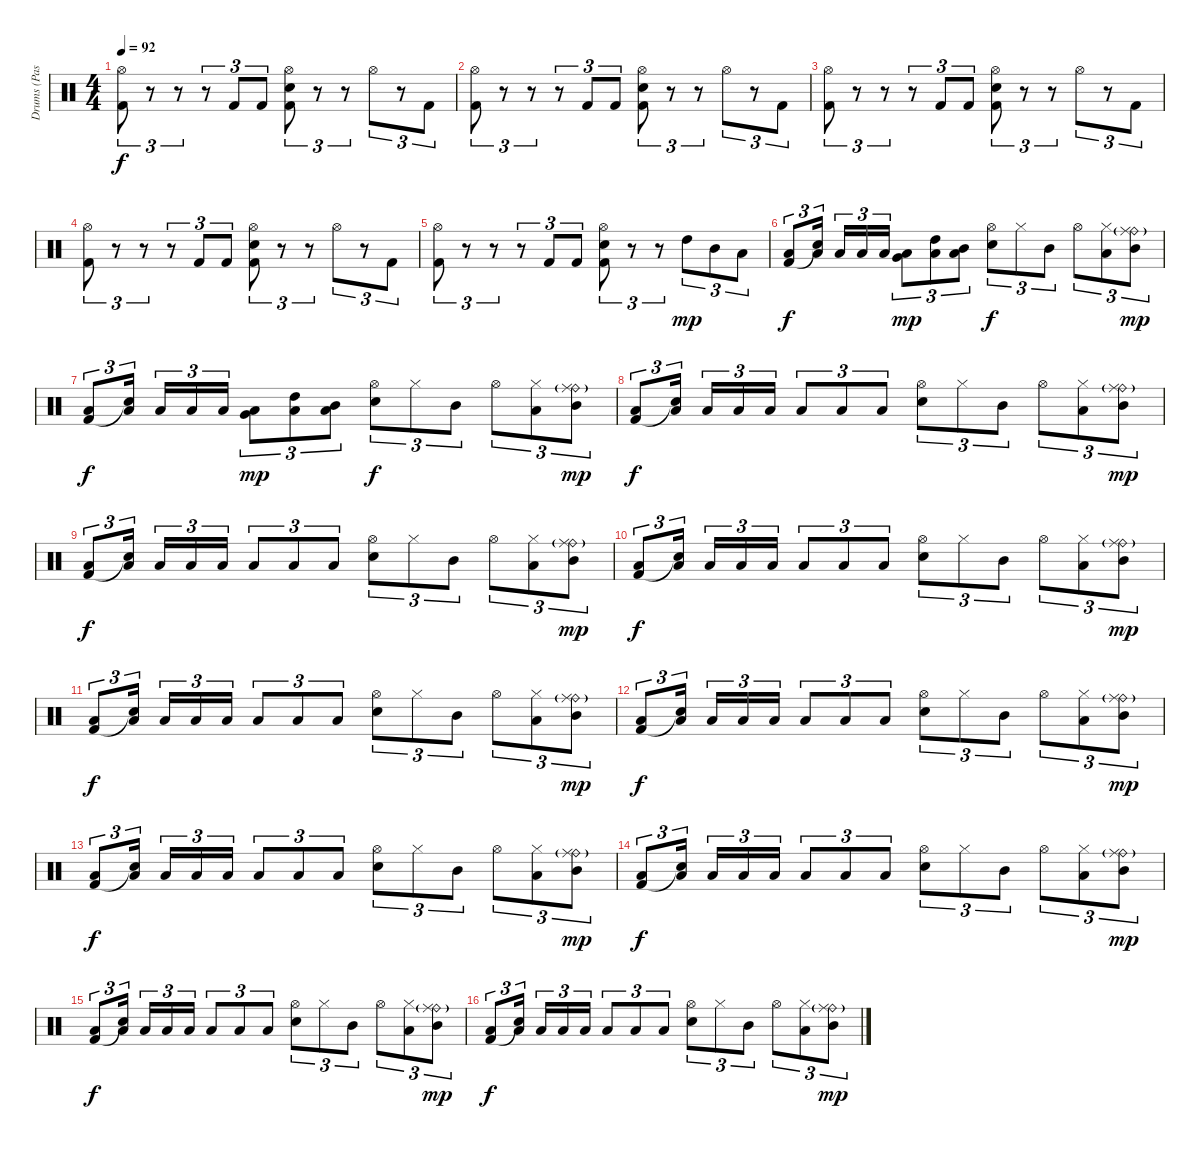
\track ("Drums (Pasanen)" "Drums (Pas") {instrument percussion}
\staff {score}
\articulation defaults
\ts (4 4)
\tempo 92
\clef neutral
\ks c
("Hi-Hat (open)" "Kick (hit) 2").8{tu (3 2) dy f} r.8{tu (3 2)} r.8{tu (3 2)} r.8{tu (3 2)} "Kick (hit) 2".8{tu (3 2)} "Kick (hit) 2".8{tu (3 2)} ("Hi-Hat (open)" "Electric Snare (hit)" "Kick (hit) 2").8{tu (3 2)} r.8{tu (3 2)} r.8{tu (3 2)} "Hi-Hat (open)".8{tu (3 2)} r.8{tu (3 2)} "Kick (hit) 2".8{tu (3 2)} |
("Hi-Hat (open)" "Kick (hit) 2").8{tu (3 2)} r.8{tu (3 2)} r.8{tu (3 2)} r.8{tu (3 2)} "Kick (hit) 2".8{tu (3 2)} "Kick (hit) 2".8{tu (3 2)} ("Hi-Hat (open)" "Electric Snare (hit)" "Kick (hit) 2").8{tu (3 2)} r.8{tu (3 2)} r.8{tu (3 2)} "Hi-Hat (open)".8{tu (3 2)} r.8{tu (3 2)} "Kick (hit) 2".8{tu (3 2)} |
("Hi-Hat (open)" "Kick (hit) 2").8{tu (3 2)} r.8{tu (3 2)} r.8{tu (3 2)} r.8{tu (3 2)} "Kick (hit) 2".8{tu (3 2)} "Kick (hit) 2".8{tu (3 2)} ("Hi-Hat (open)" "Electric Snare (hit)" "Kick (hit) 2").8{tu (3 2)} r.8{tu (3 2)} r.8{tu (3 2)} "Hi-Hat (open)".8{tu (3 2)} r.8{tu (3 2)} "Kick (hit) 2".8{tu (3 2)} |
("Hi-Hat (open)" "Kick (hit) 2").8{tu (3 2)} r.8{tu (3 2)} r.8{tu (3 2)} r.8{tu (3 2)} "Kick (hit) 2".8{tu (3 2)} "Kick (hit) 2".8{tu (3 2)} ("Hi-Hat (open)" "Electric Snare (hit)" "Kick (hit) 2").8{tu (3 2)} r.8{tu (3 2)} r.8{tu (3 2)} "Hi-Hat (open)".8{tu (3 2)} r.8{tu (3 2)} "Kick (hit) 2".8{tu (3 2)} |
("Hi-Hat (open)" "Kick (hit) 2").8{tu (3 2)} r.8{tu (3 2)} r.8{tu (3 2)} r.8{tu (3 2)} "Kick (hit) 2".8{tu (3 2)} "Kick (hit) 2".8{tu (3 2)} ("Hi-Hat (open)" "Electric Snare (hit)" "Kick (hit) 2").8{tu (3 2)} r.8{tu (3 2)} r.8{tu (3 2)} "High Tom (hit)".8{tu (3 2) dy mp} "Mid Tom (hit)".8{tu (3 2)} "Low Tom (hit)".8{tu (3 2)} |
("Low Tom (hit)" "Kick (hit) 2").8{tu (3 2) dy f} ("Low Tom (hit)" "Snare (hit)"{t}).16{tu (3 2) beam splitsecondary} "Low Tom (hit)".16{tu (3 2)} "Low Tom (hit)".16{tu (3 2)} "Low Tom (hit)".16{tu (3 2)} ("Low Tom (hit)" "Very Low Tom (hit)").8{tu (3 2) dy mp} ("Low Tom (hit)" "High Tom (hit)").8{tu (3 2)} ("Low Tom (hit)" "Mid Tom (hit)").8{tu (3 2)} ("Hi-Hat (open)" "Electric Snare (hit)").8{tu (3 2) dy f} "Hi-Hat (closed)".8{tu (3 2)} "Mid Tom (hit)".8{tu (3 2)} "Hi-Hat (open)".8{tu (3 2)} ("Hi-Hat (closed)" "Low Tom (hit)").8{tu (3 2)} ("Ride (bell)"{g} "Ride (middle)" "Mid Tom (hit)").8{tu (3 2) dy mp} |
("Low Tom (hit)" "Kick (hit) 2").8{tu (3 2) dy f} ("Low Tom (hit)" "Snare (hit)"{t}).16{tu (3 2) beam splitsecondary} "Low Tom (hit)".16{tu (3 2)} "Low Tom (hit)".16{tu (3 2)} "Low Tom (hit)".16{tu (3 2)} ("Low Tom (hit)" "Very Low Tom (hit)").8{tu (3 2) dy mp} ("Low Tom (hit)" "High Tom (hit)").8{tu (3 2)} ("Low Tom (hit)" "Mid Tom (hit)").8{tu (3 2)} ("Hi-Hat (open)" "Electric Snare (hit)").8{tu (3 2) dy f} "Hi-Hat (closed)".8{tu (3 2)} "Mid Tom (hit)".8{tu (3 2)} "Hi-Hat (open)".8{tu (3 2)} ("Hi-Hat (closed)" "Low Tom (hit)").8{tu (3 2)} ("Ride (bell)"{g} "Ride (middle)" "Mid Tom (hit)").8{tu (3 2) dy mp} |
("Low Tom (hit)" "Kick (hit) 2").8{tu (3 2) dy f} ("Low Tom (hit)" "Snare (hit)"{t}).16{tu (3 2) beam splitsecondary} "Low Tom (hit)".16{tu (3 2)} "Low Tom (hit)".16{tu (3 2)} "Low Tom (hit)".16{tu (3 2)} "Low Tom (hit)".8{tu (3 2)} "Low Tom (hit)".8{tu (3 2)} "Low Tom (hit)".8{tu (3 2)} ("Hi-Hat (open)" "Electric Snare (hit)").8{tu (3 2)} "Hi-Hat (closed)".8{tu (3 2)} "Mid Tom (hit)".8{tu (3 2)} "Hi-Hat (open)".8{tu (3 2)} ("Hi-Hat (closed)" "Low Tom (hit)").8{tu (3 2)} ("Ride (bell)"{g} "Ride (middle)" "Mid Tom (hit)").8{tu (3 2) dy mp} |
("Low Tom (hit)" "Kick (hit) 2").8{tu (3 2) dy f} ("Low Tom (hit)" "Snare (hit)"{t}).16{tu (3 2) beam splitsecondary} "Low Tom (hit)".16{tu (3 2)} "Low Tom (hit)".16{tu (3 2)} "Low Tom (hit)".16{tu (3 2)} "Low Tom (hit)".8{tu (3 2)} "Low Tom (hit)".8{tu (3 2)} "Low Tom (hit)".8{tu (3 2)} ("Hi-Hat (open)" "Electric Snare (hit)").8{tu (3 2)} "Hi-Hat (closed)".8{tu (3 2)} "Mid Tom (hit)".8{tu (3 2)} "Hi-Hat (open)".8{tu (3 2)} ("Hi-Hat (closed)" "Low Tom (hit)").8{tu (3 2)} ("Ride (bell)"{g} "Ride (middle)" "Mid Tom (hit)").8{tu (3 2) dy mp} |
("Low Tom (hit)" "Kick (hit) 2").8{tu (3 2) dy f} ("Low Tom (hit)" "Snare (hit)"{t}).16{tu (3 2) beam splitsecondary} "Low Tom (hit)".16{tu (3 2)} "Low Tom (hit)".16{tu (3 2)} "Low Tom (hit)".16{tu (3 2)} "Low Tom (hit)".8{tu (3 2)} "Low Tom (hit)".8{tu (3 2)} "Low Tom (hit)".8{tu (3 2)} ("Hi-Hat (open)" "Electric Snare (hit)").8{tu (3 2)} "Hi-Hat (closed)".8{tu (3 2)} "Mid Tom (hit)".8{tu (3 2)} "Hi-Hat (open)".8{tu (3 2)} ("Hi-Hat (closed)" "Low Tom (hit)").8{tu (3 2)} ("Ride (bell)"{g} "Ride (middle)" "Mid Tom (hit)").8{tu (3 2) dy mp} |
("Low Tom (hit)" "Kick (hit) 2").8{tu (3 2) dy f} ("Low Tom (hit)" "Snare (hit)"{t}).16{tu (3 2) beam splitsecondary} "Low Tom (hit)".16{tu (3 2)} "Low Tom (hit)".16{tu (3 2)} "Low Tom (hit)".16{tu (3 2)} "Low Tom (hit)".8{tu (3 2)} "Low Tom (hit)".8{tu (3 2)} "Low Tom (hit)".8{tu (3 2)} ("Hi-Hat (open)" "Electric Snare (hit)").8{tu (3 2)} "Hi-Hat (closed)".8{tu (3 2)} "Mid Tom (hit)".8{tu (3 2)} "Hi-Hat (open)".8{tu (3 2)} ("Hi-Hat (closed)" "Low Tom (hit)").8{tu (3 2)} ("Ride (bell)"{g} "Ride (middle)" "Mid Tom (hit)").8{tu (3 2) dy mp} |
("Low Tom (hit)" "Kick (hit) 2").8{tu (3 2) dy f} ("Low Tom (hit)" "Snare (hit)"{t}).16{tu (3 2) beam splitsecondary} "Low Tom (hit)".16{tu (3 2)} "Low Tom (hit)".16{tu (3 2)} "Low Tom (hit)".16{tu (3 2)} "Low Tom (hit)".8{tu (3 2)} "Low Tom (hit)".8{tu (3 2)} "Low Tom (hit)".8{tu (3 2)} ("Hi-Hat (open)" "Electric Snare (hit)").8{tu (3 2)} "Hi-Hat (closed)".8{tu (3 2)} "Mid Tom (hit)".8{tu (3 2)} "Hi-Hat (open)".8{tu (3 2)} ("Hi-Hat (closed)" "Low Tom (hit)").8{tu (3 2)} ("Ride (bell)"{g} "Ride (middle)" "Mid Tom (hit)").8{tu (3 2) dy mp} |
("Low Tom (hit)" "Kick (hit) 2").8{tu (3 2) dy f} ("Low Tom (hit)" "Snare (hit)"{t}).16{tu (3 2) beam splitsecondary} "Low Tom (hit)".16{tu (3 2)} "Low Tom (hit)".16{tu (3 2)} "Low Tom (hit)".16{tu (3 2)} "Low Tom (hit)".8{tu (3 2)} "Low Tom (hit)".8{tu (3 2)} "Low Tom (hit)".8{tu (3 2)} ("Hi-Hat (open)" "Electric Snare (hit)").8{tu (3 2)} "Hi-Hat (closed)".8{tu (3 2)} "Mid Tom (hit)".8{tu (3 2)} "Hi-Hat (open)".8{tu (3 2)} ("Hi-Hat (closed)" "Low Tom (hit)").8{tu (3 2)} ("Ride (bell)"{g} "Ride (middle)" "Mid Tom (hit)").8{tu (3 2) dy mp} |
("Low Tom (hit)" "Kick (hit) 2").8{tu (3 2) dy f} ("Low Tom (hit)" "Snare (hit)"{t}).16{tu (3 2) beam splitsecondary} "Low Tom (hit)".16{tu (3 2)} "Low Tom (hit)".16{tu (3 2)} "Low Tom (hit)".16{tu (3 2)} "Low Tom (hit)".8{tu (3 2)} "Low Tom (hit)".8{tu (3 2)} "Low Tom (hit)".8{tu (3 2)} ("Hi-Hat (open)" "Electric Snare (hit)").8{tu (3 2)} "Hi-Hat (closed)".8{tu (3 2)} "Mid Tom (hit)".8{tu (3 2)} "Hi-Hat (open)".8{tu (3 2)} ("Hi-Hat (closed)" "Low Tom (hit)").8{tu (3 2)} ("Ride (bell)"{g} "Ride (middle)" "Mid Tom (hit)").8{tu (3 2) dy mp} |
("Low Tom (hit)" "Kick (hit) 2").8{tu (3 2) dy f} ("Low Tom (hit)" "Snare (hit)"{t}).16{tu (3 2) beam splitsecondary} "Low Tom (hit)".16{tu (3 2)} "Low Tom (hit)".16{tu (3 2)} "Low Tom (hit)".16{tu (3 2)} "Low Tom (hit)".8{tu (3 2)} "Low Tom (hit)".8{tu (3 2)} "Low Tom (hit)".8{tu (3 2)} ("Hi-Hat (open)" "Electric Snare (hit)").8{tu (3 2)} "Hi-Hat (closed)".8{tu (3 2)} "Mid Tom (hit)".8{tu (3 2)} "Hi-Hat (open)".8{tu (3 2)} ("Hi-Hat (closed)" "Low Tom (hit)").8{tu (3 2)} ("Ride (bell)"{g} "Ride (middle)" "Mid Tom (hit)").8{tu (3 2) dy mp} |
("Low Tom (hit)" "Kick (hit) 2").8{tu (3 2) dy f} ("Low Tom (hit)" "Snare (hit)"{t}).16{tu (3 2) beam splitsecondary} "Low Tom (hit)".16{tu (3 2)} "Low Tom (hit)".16{tu (3 2)} "Low Tom (hit)".16{tu (3 2)} "Low Tom (hit)".8{tu (3 2)} "Low Tom (hit)".8{tu (3 2)} "Low Tom (hit)".8{tu (3 2)} ("Hi-Hat (open)" "Electric Snare (hit)").8{tu (3 2)} "Hi-Hat (closed)".8{tu (3 2)} "Mid Tom (hit)".8{tu (3 2)} "Hi-Hat (open)".8{tu (3 2)} ("Hi-Hat (closed)" "Low Tom (hit)").8{tu (3 2)} ("Ride (bell)"{g} "Ride (middle)" "Mid Tom (hit)").8{tu (3 2) dy mp}
